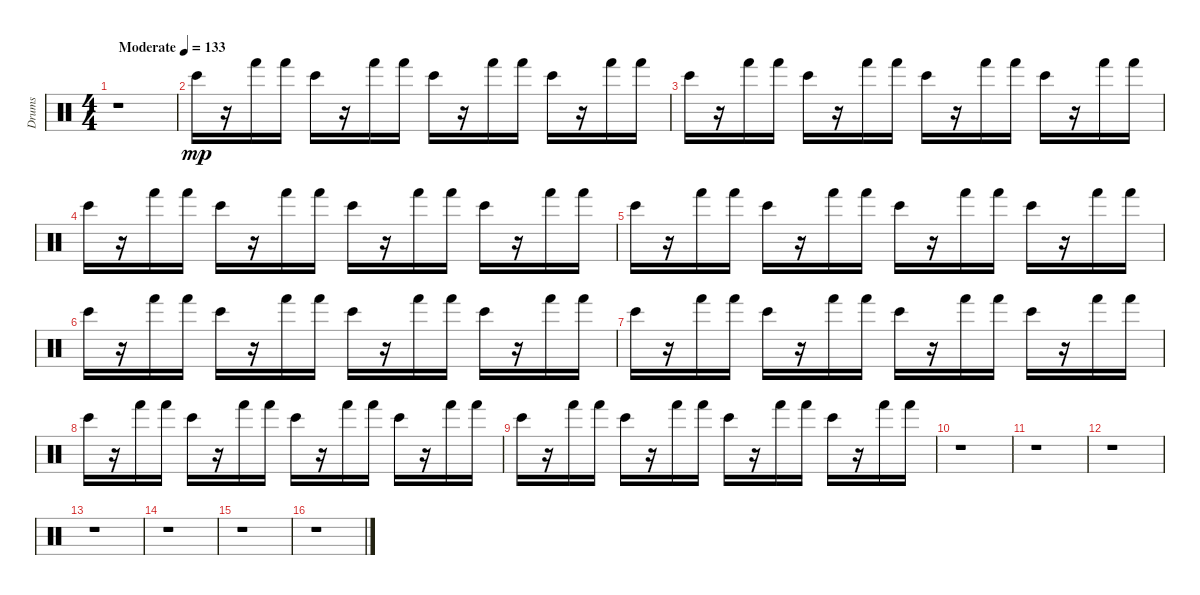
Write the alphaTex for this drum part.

\track ("Drums" "Drums") {instrument percussion}
\staff {score}
\articulation defaults
\ts (4 4)
\tempo (133 "Moderate")
\clef neutral
\ks c
r.1{dy mp} |
"Bongo High (hit)".16{volume 8} r.16 "Hand (hit)".16{volume 11} "Hand (hit)".16{volume 12} "Bongo High (hit)".16 r.16 "Hand (hit)".16{volume 13} "Hand (hit)".16 "Bongo High (hit)".16{volume 14} r.16 "Hand (hit)".16{volume 15} "Hand (hit)".16 "Bongo High (hit)".16 r.16 "Hand (hit)".16{volume 15} "Hand (hit)".16 |
"Bongo High (hit)".16 r.16 "Hand (hit)".16{volume 16} "Hand (hit)".16 "Bongo High (hit)".16 r.16 "Hand (hit)".16 "Hand (hit)".16 "Bongo High (hit)".16 r.16 "Hand (hit)".16 "Hand (hit)".16 "Bongo High (hit)".16 r.16 "Hand (hit)".16 "Hand (hit)".16 |
"Bongo High (hit)".16 r.16 "Hand (hit)".16 "Hand (hit)".16 "Bongo High (hit)".16 r.16 "Hand (hit)".16 "Hand (hit)".16 "Bongo High (hit)".16 r.16 "Hand (hit)".16 "Hand (hit)".16 "Bongo High (hit)".16 r.16 "Hand (hit)".16 "Hand (hit)".16 |
"Bongo High (hit)".16 r.16 "Hand (hit)".16 "Hand (hit)".16 "Bongo High (hit)".16 r.16 "Hand (hit)".16 "Hand (hit)".16 "Bongo High (hit)".16 r.16 "Hand (hit)".16 "Hand (hit)".16 "Bongo High (hit)".16 r.16 "Hand (hit)".16 "Hand (hit)".16 |
"Bongo High (hit)".16 r.16 "Hand (hit)".16 "Hand (hit)".16 "Bongo High (hit)".16 r.16 "Hand (hit)".16 "Hand (hit)".16 "Bongo High (hit)".16 r.16 "Hand (hit)".16 "Hand (hit)".16 "Bongo High (hit)".16 r.16 "Hand (hit)".16 "Hand (hit)".16 |
"Bongo High (hit)".16 r.16 "Hand (hit)".16 "Hand (hit)".16 "Bongo High (hit)".16 r.16 "Hand (hit)".16 "Hand (hit)".16 "Bongo High (hit)".16 r.16 "Hand (hit)".16 "Hand (hit)".16 "Bongo High (hit)".16 r.16 "Hand (hit)".16 "Hand (hit)".16 |
"Bongo High (hit)".16 r.16 "Hand (hit)".16{volume 14} "Hand (hit)".16 "Bongo High (hit)".16{volume 13} r.16 "Hand (hit)".16{volume 12} "Hand (hit)".16 "Bongo High (hit)".16{volume 11} r.16 "Hand (hit)".16{volume 12} "Hand (hit)".16 "Bongo High (hit)".16 r.16 "Hand (hit)".16{volume 11} "Hand (hit)".16 |
"Bongo High (hit)".16 r.16 "Hand (hit)".16{volume 10} "Hand (hit)".16{volume 10} "Bongo High (hit)".16 r.16 "Hand (hit)".16{volume 10} "Hand (hit)".16 "Bongo High (hit)".16{volume 9} r.16 "Hand (hit)".16{volume 9} "Hand (hit)".16 "Bongo High (hit)".16{volume 8} r.16 "Hand (hit)".16 "Hand (hit)".16{volume 6} |
r.1 |
r.1 |
r.1 |
r.1 |
r.1 |
r.1 |
r.1
